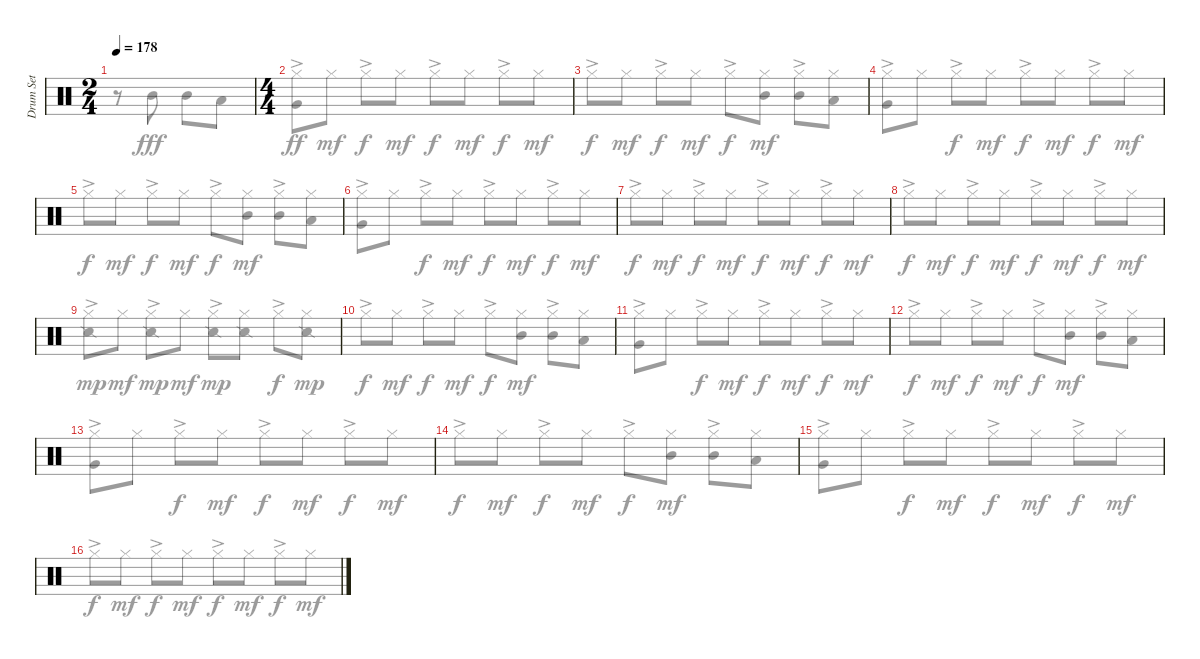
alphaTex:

\track ("Drum Set" "Drum Set") {instrument percussion}
\staff {score}
\articulation defaults
\voice
\ts (2 4)
\tempo 178
\clef neutral
\ks c
|
\ts (4 4)
|
|
|
|
|
|
|
|
|
|
|
|
|
|
\voice
\clef neutral
\ks c
r.8{dy fff} "Mid Tom (hit)".8 "Mid Tom (hit)".8 "Low Tom (hit)".8 |
("Hi-Hat (closed)"{ac} "Very Low Tom (hit)").8{dy ff} "Hi-Hat (closed)".8{dy mf} "Hi-Hat (closed)"{ac}.8{dy f} "Hi-Hat (closed)".8{dy mf} "Hi-Hat (closed)"{ac}.8{dy f} "Hi-Hat (closed)".8{dy mf} "Hi-Hat (closed)"{ac}.8{dy f} "Hi-Hat (closed)".8{dy mf} |
"Hi-Hat (closed)"{ac}.8{dy f} "Hi-Hat (closed)".8{dy mf} "Hi-Hat (closed)"{ac}.8{dy f} "Hi-Hat (closed)".8{dy mf} "Hi-Hat (closed)"{ac}.8{dy f} ("Hi-Hat (closed)" "Mid Tom (hit)").8{dy mf} ("Hi-Hat (closed)"{ac} "Mid Tom (hit)").8 ("Hi-Hat (closed)" "Low Tom (hit)").8 |
("Hi-Hat (closed)"{ac} "Very Low Tom (hit)").8 "Hi-Hat (closed)".8 "Hi-Hat (closed)"{ac}.8{dy f} "Hi-Hat (closed)".8{dy mf} "Hi-Hat (closed)"{ac}.8{dy f} "Hi-Hat (closed)".8{dy mf} "Hi-Hat (closed)"{ac}.8{dy f} "Hi-Hat (closed)".8{dy mf} |
"Hi-Hat (closed)"{ac}.8{dy f} "Hi-Hat (closed)".8{dy mf} "Hi-Hat (closed)"{ac}.8{dy f} "Hi-Hat (closed)".8{dy mf} "Hi-Hat (closed)"{ac}.8{dy f} ("Hi-Hat (closed)" "Mid Tom (hit)").8{dy mf} ("Hi-Hat (closed)"{ac} "Mid Tom (hit)").8 ("Hi-Hat (closed)" "Low Tom (hit)").8 |
("Hi-Hat (closed)"{ac} "Very Low Tom (hit)").8 "Hi-Hat (closed)".8 "Hi-Hat (closed)"{ac}.8{dy f} "Hi-Hat (closed)".8{dy mf} "Hi-Hat (closed)"{ac}.8{dy f} "Hi-Hat (closed)".8{dy mf} "Hi-Hat (closed)"{ac}.8{dy f} "Hi-Hat (closed)".8{dy mf} |
"Hi-Hat (closed)"{ac}.8{dy f} "Hi-Hat (closed)".8{dy mf} "Hi-Hat (closed)"{ac}.8{dy f} "Hi-Hat (closed)".8{dy mf} "Hi-Hat (closed)"{ac}.8{dy f} "Hi-Hat (closed)".8{dy mf} "Hi-Hat (closed)"{ac}.8{dy f} "Hi-Hat (closed)".8{dy mf} |
"Hi-Hat (closed)"{ac}.8{dy f} "Hi-Hat (closed)".8{dy mf} "Hi-Hat (closed)"{ac}.8{dy f} "Hi-Hat (closed)".8{dy mf} "Hi-Hat (closed)"{ac}.8{dy f} "Hi-Hat (closed)".8{dy mf} "Hi-Hat (closed)"{ac}.8{dy f} "Hi-Hat (closed)".8{dy mf} |
("Hi-Hat (closed)"{ac} "Snare (side stick) 2").8{dy mp} "Hi-Hat (closed)".8{dy mf} ("Hi-Hat (closed)"{ac} "Snare (side stick) 2").8{dy mp} "Hi-Hat (closed)".8{dy mf} ("Hi-Hat (closed)"{ac} "Snare (side stick) 2").8{dy mp} ("Hi-Hat (closed)" "Snare (side stick) 2").8 "Hi-Hat (closed)"{ac}.8{dy f} ("Hi-Hat (closed)" "Snare (side stick) 2").8{dy mp} |
"Hi-Hat (closed)"{ac}.8{dy f} "Hi-Hat (closed)".8{dy mf} "Hi-Hat (closed)"{ac}.8{dy f} "Hi-Hat (closed)".8{dy mf} "Hi-Hat (closed)"{ac}.8{dy f} ("Hi-Hat (closed)" "Mid Tom (hit)").8{dy mf} ("Hi-Hat (closed)"{ac} "Mid Tom (hit)").8 ("Hi-Hat (closed)" "Low Tom (hit)").8 |
("Hi-Hat (closed)"{ac} "Very Low Tom (hit)").8 "Hi-Hat (closed)".8 "Hi-Hat (closed)"{ac}.8{dy f} "Hi-Hat (closed)".8{dy mf} "Hi-Hat (closed)"{ac}.8{dy f} "Hi-Hat (closed)".8{dy mf} "Hi-Hat (closed)"{ac}.8{dy f} "Hi-Hat (closed)".8{dy mf} |
"Hi-Hat (closed)"{ac}.8{dy f} "Hi-Hat (closed)".8{dy mf} "Hi-Hat (closed)"{ac}.8{dy f} "Hi-Hat (closed)".8{dy mf} "Hi-Hat (closed)"{ac}.8{dy f} ("Hi-Hat (closed)" "Mid Tom (hit)").8{dy mf} ("Hi-Hat (closed)"{ac} "Mid Tom (hit)").8 ("Hi-Hat (closed)" "Low Tom (hit)").8 |
("Hi-Hat (closed)"{ac} "Very Low Tom (hit)").8 "Hi-Hat (closed)".8 "Hi-Hat (closed)"{ac}.8{dy f} "Hi-Hat (closed)".8{dy mf} "Hi-Hat (closed)"{ac}.8{dy f} "Hi-Hat (closed)".8{dy mf} "Hi-Hat (closed)"{ac}.8{dy f} "Hi-Hat (closed)".8{dy mf} |
"Hi-Hat (closed)"{ac}.8{dy f} "Hi-Hat (closed)".8{dy mf} "Hi-Hat (closed)"{ac}.8{dy f} "Hi-Hat (closed)".8{dy mf} "Hi-Hat (closed)"{ac}.8{dy f} ("Hi-Hat (closed)" "Mid Tom (hit)").8{dy mf} ("Hi-Hat (closed)"{ac} "Mid Tom (hit)").8 ("Hi-Hat (closed)" "Low Tom (hit)").8 |
("Hi-Hat (closed)"{ac} "Very Low Tom (hit)").8 "Hi-Hat (closed)".8 "Hi-Hat (closed)"{ac}.8{dy f} "Hi-Hat (closed)".8{dy mf} "Hi-Hat (closed)"{ac}.8{dy f} "Hi-Hat (closed)".8{dy mf} "Hi-Hat (closed)"{ac}.8{dy f} "Hi-Hat (closed)".8{dy mf} |
"Hi-Hat (closed)"{ac}.8{dy f} "Hi-Hat (closed)".8{dy mf} "Hi-Hat (closed)"{ac}.8{dy f} "Hi-Hat (closed)".8{dy mf} "Hi-Hat (closed)"{ac}.8{dy f} "Hi-Hat (closed)".8{dy mf} "Hi-Hat (closed)"{ac}.8{dy f} "Hi-Hat (closed)".8{dy mf}
